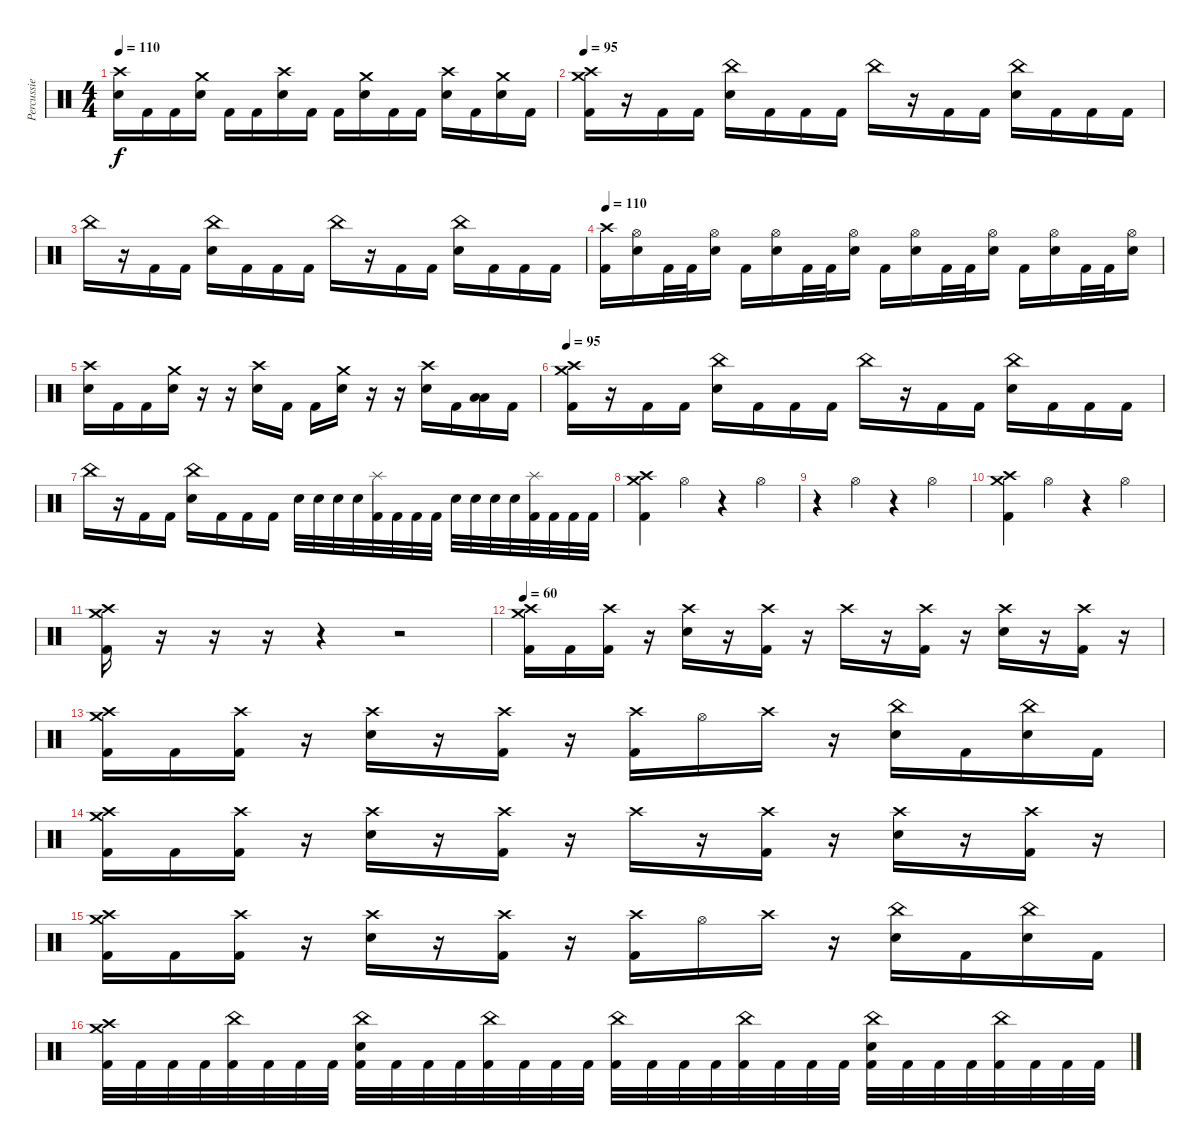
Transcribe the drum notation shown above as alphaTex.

\track ("Percussie" "Percussie") {instrument percussion}
\staff {score}
\articulation defaults
\ts (4 4)
\tempo 110
\clef neutral
\ks c
("Crash high (hit)" "Electric Snare (hit)").16{dy f} "Kick (hit) 2".16 "Kick (hit) 2".16 ("Crash medium (hit)" "Electric Snare (hit)").16 "Kick (hit) 2".16 "Kick (hit) 2".16 ("Crash high (hit)" "Electric Snare (hit)").16 "Kick (hit) 2".16 "Kick (hit) 2".16 ("Crash medium (hit)" "Electric Snare (hit)").16 "Kick (hit) 2".16 "Kick (hit) 2".16 ("Crash high (hit)" "Electric Snare (hit)").16 "Kick (hit) 2".16 ("Crash medium (hit)" "Electric Snare (hit)").16 "Kick (hit) 2".16 |
\tempo 95
("Crash medium (hit)" "Crash high (hit)" "Kick (hit) 2").16 r.16 "Kick (hit) 2".16 "Kick (hit) 2".16 ("China (hit)" "Electric Snare (hit)").16 "Kick (hit) 2".16 "Kick (hit) 2".16 "Kick (hit) 2".16 "China (hit)".16 r.16 "Kick (hit) 2".16 "Kick (hit) 2".16 ("China (hit)" "Electric Snare (hit)").16 "Kick (hit) 2".16 "Kick (hit) 2".16 "Kick (hit) 2".16 |
"China (hit)".16 r.16 "Kick (hit) 2".16 "Kick (hit) 2".16 ("China (hit)" "Electric Snare (hit)").16 "Kick (hit) 2".16 "Kick (hit) 2".16 "Kick (hit) 2".16 "China (hit)".16 r.16 "Kick (hit) 2".16 "Kick (hit) 2".16 ("China (hit)" "Electric Snare (hit)").16 "Kick (hit) 2".16 "Kick (hit) 2".16 "Kick (hit) 2".16 |
\tempo 110
("Crash high (hit)" "Kick (hit) 2").16 ("Hi-Hat (open)" "Electric Snare (hit)").16 "Kick (hit) 2".32 "Kick (hit) 2".32 ("Hi-Hat (open)" "Electric Snare (hit)").16 "Kick (hit) 2".16 ("Hi-Hat (open)" "Electric Snare (hit)").16 "Kick (hit) 2".32 "Kick (hit) 2".32 ("Hi-Hat (open)" "Electric Snare (hit)").16 "Kick (hit) 2".16 ("Hi-Hat (open)" "Electric Snare (hit)").16 "Kick (hit) 2".32 "Kick (hit) 2".32 ("Hi-Hat (open)" "Electric Snare (hit)").16 "Kick (hit) 2".16 ("Hi-Hat (open)" "Electric Snare (hit)").16 "Kick (hit) 2".32 "Kick (hit) 2".32 ("Hi-Hat (open)" "Electric Snare (hit)").16 |
("Crash high (hit)" "Electric Snare (hit)").16 "Kick (hit) 2".16 "Kick (hit) 2".16 ("Crash medium (hit)" "Electric Snare (hit)").16 r.16 r.16 ("Crash high (hit)" "Electric Snare (hit)").16 "Kick (hit) 2".16 "Kick (hit) 2".16 ("Crash medium (hit)" "Electric Snare (hit)").16 r.16 r.16 ("Crash high (hit)" "Electric Snare (hit)").16 "Kick (hit) 2".16 ("Low Tom (hit)" "Low Floor Tom (hit)").16 "Kick (hit) 2".16 |
\tempo 95
("Crash medium (hit)" "Crash high (hit)" "Kick (hit) 2").16 r.16 "Kick (hit) 2".16 "Kick (hit) 2".16 ("China (hit)" "Electric Snare (hit)").16 "Kick (hit) 2".16 "Kick (hit) 2".16 "Kick (hit) 2".16 "China (hit)".16 r.16 "Kick (hit) 2".16 "Kick (hit) 2".16 ("China (hit)" "Electric Snare (hit)").16 "Kick (hit) 2".16 "Kick (hit) 2".16 "Kick (hit) 2".16 |
"China (hit)".16 r.16 "Kick (hit) 2".16 "Kick (hit) 2".16 ("China (hit)" "Electric Snare (hit)").16 "Kick (hit) 2".16 "Kick (hit) 2".16 "Kick (hit) 2".16 "Electric Snare (hit)".32 "Electric Snare (hit)".32 "Electric Snare (hit)".32 "Electric Snare (hit)".32 ("Splash (hit)" "Kick (hit) 2").32 "Kick (hit) 2".32 "Kick (hit) 2".32 "Kick (hit) 2".32 "Electric Snare (hit)".32 "Electric Snare (hit)".32 "Electric Snare (hit)".32 "Electric Snare (hit)".32 ("Splash (hit)" "Kick (hit) 2").32 "Kick (hit) 2".32 "Kick (hit) 2".32 "Kick (hit) 2".32 |
("Crash medium (hit)" "Crash high (hit)" "Kick (hit) 2").4 "Hi-Hat (open)".4 r.4 "Hi-Hat (open)".4 |
r.4 "Hi-Hat (open)".4 r.4 "Hi-Hat (open)".4 |
("Crash medium (hit)" "Crash high (hit)" "Kick (hit) 2").4 "Hi-Hat (open)".4 r.4 "Hi-Hat (open)".4 |
("Crash medium (hit)" "Crash high (hit)" "Kick (hit) 2").16 r.16{volume 0} r.16 r.16 r.4 r.2 |
\tempo 60
("Crash medium (hit)" "Crash high (hit)" "Kick (hit) 2").16{volume 13} "Kick (hit) 2".16 ("Crash high (hit)" "Kick (hit) 2").16 r.16 ("Crash high (hit)" "Electric Snare (hit)").16 r.16 ("Crash high (hit)" "Kick (hit) 2").16 r.16 "Crash high (hit)".16 r.16 ("Crash high (hit)" "Kick (hit) 2").16 r.16 ("Crash high (hit)" "Electric Snare (hit)").16 r.16 ("Crash high (hit)" "Kick (hit) 2").16 r.16 |
("Crash medium (hit)" "Crash high (hit)" "Kick (hit) 2").16 "Kick (hit) 2".16 ("Crash high (hit)" "Kick (hit) 2").16 r.16 ("Crash high (hit)" "Electric Snare (hit)").16 r.16 ("Crash high (hit)" "Kick (hit) 2").16 r.16 ("Crash high (hit)" "Kick (hit) 2").16 "Hi-Hat (open)".16 "Crash high (hit)".16 r.16 ("China (hit)" "Electric Snare (hit)").16 "Kick (hit) 2".16 ("China (hit)" "Electric Snare (hit)").16 "Kick (hit) 2".16 |
("Crash medium (hit)" "Crash high (hit)" "Kick (hit) 2").16 "Kick (hit) 2".16 ("Crash high (hit)" "Kick (hit) 2").16 r.16 ("Crash high (hit)" "Electric Snare (hit)").16 r.16 ("Crash high (hit)" "Kick (hit) 2").16 r.16 "Crash high (hit)".16 r.16 ("Crash high (hit)" "Kick (hit) 2").16 r.16 ("Crash high (hit)" "Electric Snare (hit)").16 r.16 ("Crash high (hit)" "Kick (hit) 2").16 r.16 |
("Crash medium (hit)" "Crash high (hit)" "Kick (hit) 2").16 "Kick (hit) 2".16 ("Crash high (hit)" "Kick (hit) 2").16 r.16 ("Crash high (hit)" "Electric Snare (hit)").16 r.16 ("Crash high (hit)" "Kick (hit) 2").16 r.16 ("Crash high (hit)" "Kick (hit) 2").16 "Hi-Hat (open)".16 "Crash high (hit)".16 r.16 ("China (hit)" "Electric Snare (hit)").16 "Kick (hit) 2".16 ("China (hit)" "Electric Snare (hit)").16 "Kick (hit) 2".16 |
("Crash medium (hit)" "Crash high (hit)" "Kick (hit) 2").32 "Kick (hit) 2".32 "Kick (hit) 2".32 "Kick (hit) 2".32 ("China (hit)" "Kick (hit) 2").32 "Kick (hit) 2".32 "Kick (hit) 2".32 "Kick (hit) 2".32 ("China (hit)" "Electric Snare (hit)" "Kick (hit) 2").32 "Kick (hit) 2".32 "Kick (hit) 2".32 "Kick (hit) 2".32 ("China (hit)" "Kick (hit) 2").32 "Kick (hit) 2".32 "Kick (hit) 2".32 "Kick (hit) 2".32 ("China (hit)" "Kick (hit) 2").32 "Kick (hit) 2".32 "Kick (hit) 2".32 "Kick (hit) 2".32 ("China (hit)" "Kick (hit) 2").32 "Kick (hit) 2".32 "Kick (hit) 2".32 "Kick (hit) 2".32 ("China (hit)" "Electric Snare (hit)" "Kick (hit) 2").32 "Kick (hit) 2".32 "Kick (hit) 2".32 "Kick (hit) 2".32 ("China (hit)" "Kick (hit) 2").32 "Kick (hit) 2".32 "Kick (hit) 2".32 "Kick (hit) 2".32
